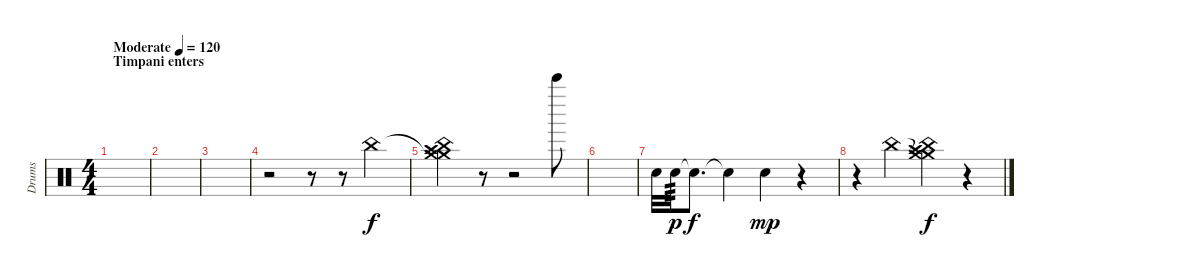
\track ("Drums" "Drums") {instrument percussion}
\staff {score}
\articulation defaults
\ts (4 4)
\section ("" "Timpani enters")
\tempo (120 "Moderate")
\clef neutral
\ks c
|
|
|
r.2 r.8 r.8 "China (hit)".4 |
("Crash medium (hit)"{t} "Crash medium (hit)" "Crash high (hit)" "China (hit)").4 r.8 r.2 "Bell Tree (hit)".8 |
|
"Snare (hit) 2".32 "Snare (hit) 2".32{tp 3 dy p} "Snare (hit)"{t}.8{d dy f} "Snare (hit)"{t}.4 "Snare (hit) 2".4{dy mp} r.4 |
r.4 "China (hit)".4 ("Crash medium (hit)"{t} "Crash medium (hit)" "Crash high (hit)" "China (hit)").4{dy f} r.4
